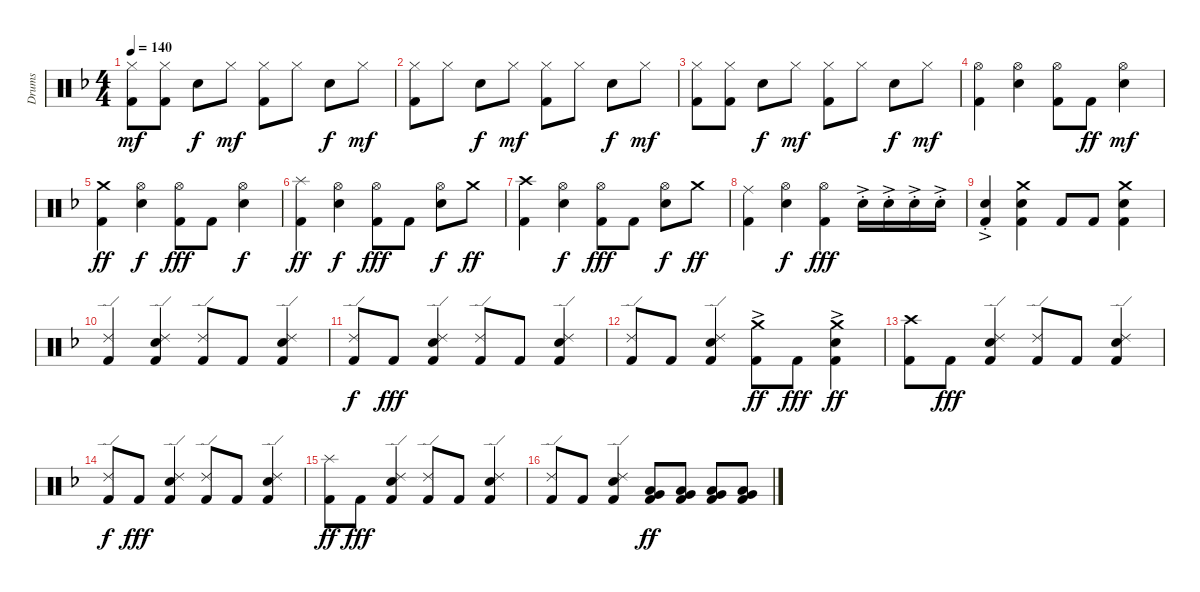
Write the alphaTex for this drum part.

\track ("Drums" "Drums") {instrument percussion}
\staff {score}
\articulation defaults
\ts (4 4)
\tempo 140
\clef neutral
\ks dminor
("Kick (hit) 2" "Hi-Hat (closed)").8{dy mf} ("Kick (hit) 2" "Hi-Hat (closed)").8 "Electric Snare (hit)".8{dy f} "Hi-Hat (closed)".8{dy mf} ("Kick (hit) 2" "Hi-Hat (closed)").8 "Hi-Hat (closed)".8 "Electric Snare (hit)".8{dy f} "Hi-Hat (closed)".8{dy mf} |
("Kick (hit) 2" "Hi-Hat (closed)").8 "Hi-Hat (closed)".8 "Electric Snare (hit)".8{dy f} "Hi-Hat (closed)".8{dy mf} ("Kick (hit) 2" "Hi-Hat (closed)").8 "Hi-Hat (closed)".8 "Electric Snare (hit)".8{dy f} "Hi-Hat (closed)".8{dy mf} |
("Kick (hit) 2" "Hi-Hat (closed)").8 ("Kick (hit) 2" "Hi-Hat (closed)").8 "Electric Snare (hit)".8{dy f} "Hi-Hat (closed)".8{dy mf} ("Kick (hit) 2" "Hi-Hat (closed)").8 "Hi-Hat (closed)".8 "Electric Snare (hit)".8{dy f} "Hi-Hat (closed)".8{dy mf} |
("Kick (hit) 2" "Hi-Hat (open)").4 ("Electric Snare (hit)" "Hi-Hat (open)").4 ("Kick (hit) 2" "Hi-Hat (open)").8 "Kick (hit) 2".8{dy ff} ("Electric Snare (hit)" "Hi-Hat (open)").4{dy mf} |
("Kick (hit) 2" "Crash medium (hit)").4{dy ff} ("Hi-Hat (open)" "Electric Snare (hit)").4{dy f} ("Kick (hit) 2" "Hi-Hat (open)").8{dy fff} "Kick (hit) 2".8 ("Hi-Hat (open)" "Electric Snare (hit)").4{dy f} |
("Kick (hit) 2" "Splash (hit)").4{dy ff} ("Hi-Hat (open)" "Electric Snare (hit)").4{dy f} ("Kick (hit) 2" "Hi-Hat (open)").8{dy fff} "Kick (hit) 2".8 ("Hi-Hat (open)" "Electric Snare (hit)").8{dy f} "Crash medium (hit)".8{dy ff} |
("Kick (hit) 2" "Crash high (hit)").4 ("Hi-Hat (open)" "Electric Snare (hit)").4{dy f} ("Kick (hit) 2" "Hi-Hat (open)").8{dy fff} "Kick (hit) 2".8 ("Hi-Hat (open)" "Electric Snare (hit)").8{dy f} "Crash medium (hit)".8{dy ff} |
("Kick (hit) 2" "Ride (middle)").4 ("Hi-Hat (open)" "Electric Snare (hit)").4{dy f} ("Kick (hit) 2" "Hi-Hat (open)").4{dy fff} "Electric Snare (hit)"{ac st}.16 "Electric Snare (hit)"{ac st}.16 "Electric Snare (hit)"{ac st}.16 "Electric Snare (hit)"{ac st}.16 |
("Kick (hit) 2" "Electric Snare (hit)"{ac st}).4 ("Kick (hit) 2" "Crash medium (hit)" "Electric Snare (hit)").4 "Kick (hit) 2".8 "Kick (hit) 2".8 ("Kick (hit) 2" "Crash medium (hit)" "Electric Snare (hit)").4 |
("Kick (hit) 2" "Ride (edge) 2").4 ("Kick (hit) 2" "Electric Snare (hit)" "Ride (edge) 2").4 ("Kick (hit) 2" "Ride (edge) 2").8 "Kick (hit) 2".8 ("Kick (hit) 2" "Electric Snare (hit)" "Ride (edge) 2").4 |
("Kick (hit) 2" "Ride (edge) 2").8{dy f} "Kick (hit) 2".8{dy fff} ("Kick (hit) 2" "Electric Snare (hit)" "Ride (edge) 2").4 ("Kick (hit) 2" "Ride (edge) 2").8 "Kick (hit) 2".8 ("Kick (hit) 2" "Electric Snare (hit)" "Ride (edge) 2").4 |
("Kick (hit) 2" "Ride (edge) 2").8 "Kick (hit) 2".8 ("Kick (hit) 2" "Electric Snare (hit)" "Ride (edge) 2").4 ("Kick (hit) 2" "Crash medium (hit)"{ac}).8{dy ff} "Kick (hit) 2".8{dy fff} ("Kick (hit) 2" "Electric Snare (hit)" "Crash medium (hit)"{ac}).4{dy ff} |
("Kick (hit) 2" "Crash high (hit)").8 "Kick (hit) 2".8{dy fff} ("Kick (hit) 2" "Electric Snare (hit)" "Ride (edge) 2").4 ("Kick (hit) 2" "Ride (edge) 2").8 "Kick (hit) 2".8 ("Kick (hit) 2" "Electric Snare (hit)" "Ride (edge) 2").4 |
("Kick (hit) 2" "Ride (edge) 2").8{dy f} "Kick (hit) 2".8{dy fff} ("Kick (hit) 2" "Electric Snare (hit)" "Ride (edge) 2").4 ("Kick (hit) 2" "Ride (edge) 2").8 "Kick (hit) 2".8 ("Kick (hit) 2" "Electric Snare (hit)" "Ride (edge) 2").4 |
("Kick (hit) 2" "Splash (hit)").8{dy ff} "Kick (hit) 2".8{dy fff} ("Kick (hit) 2" "Electric Snare (hit)" "Ride (edge) 2").4 ("Kick (hit) 2" "Ride (edge) 2").8 "Kick (hit) 2".8 ("Kick (hit) 2" "Electric Snare (hit)" "Ride (edge) 2").4 |
("Kick (hit) 2" "Ride (edge) 2").8 "Kick (hit) 2".8 ("Kick (hit) 2" "Electric Snare (hit)" "Ride (edge) 2").4 ("Very Low Tom (hit)" "Low Tom (hit)" "Kick (hit) 2").8{dy ff} ("Very Low Tom (hit)" "Low Tom (hit)" "Kick (hit) 2").8 ("Very Low Tom (hit)" "Low Tom (hit)" "Kick (hit) 2").8 ("Very Low Tom (hit)" "Low Tom (hit)" "Kick (hit) 2").8
